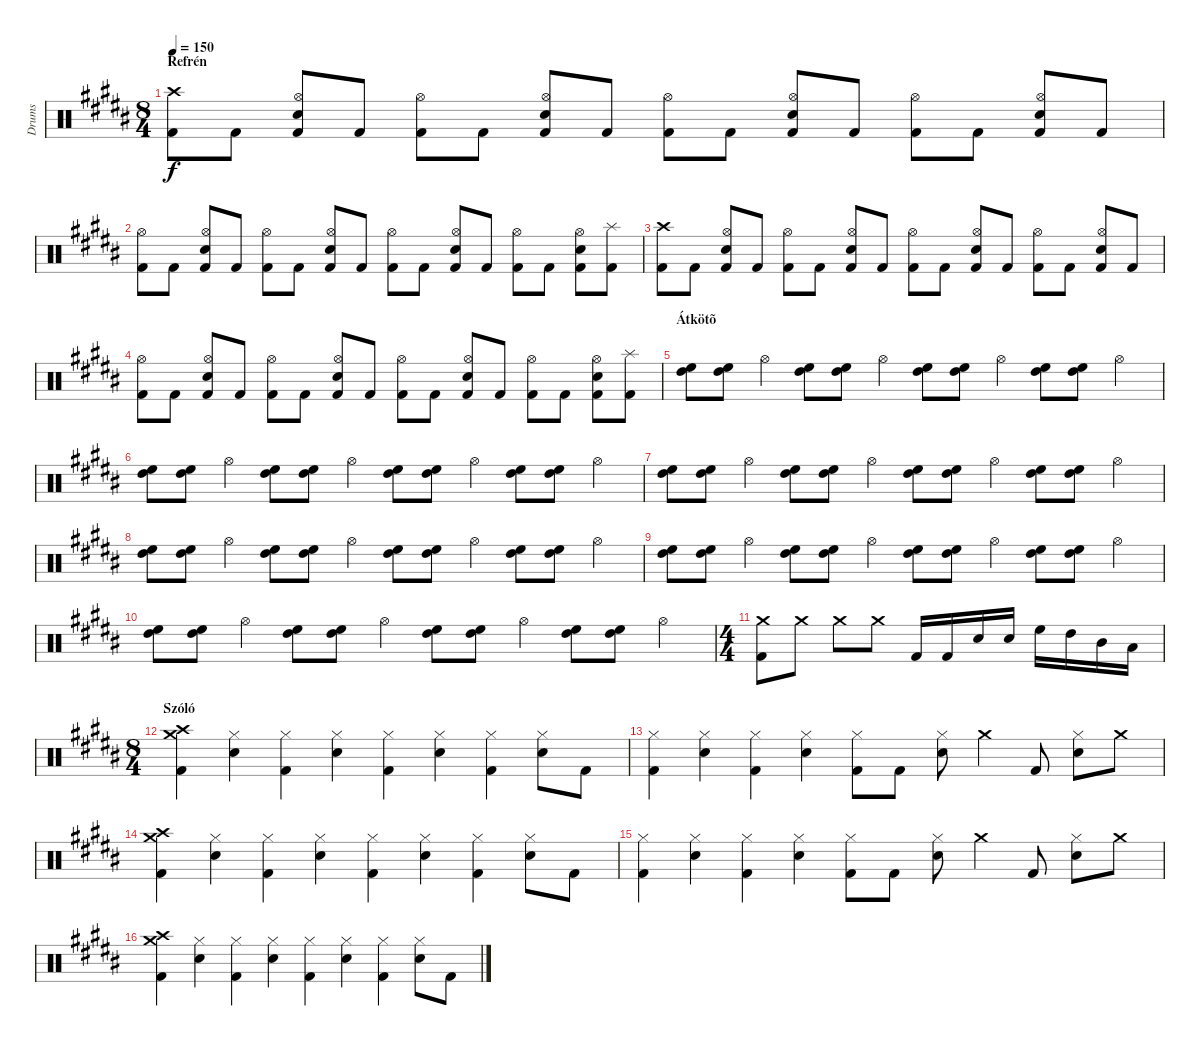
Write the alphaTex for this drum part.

\track ("Drums" "Drums") {instrument percussion}
\staff {score}
\articulation defaults
\ts (8 4)
\section ("" "Refrén")
\tempo 150
\clef neutral
\ks g#minor
("Crash high (hit)" "Kick (hit) 2").8{dy f} "Kick (hit) 2".8 ("Hi-Hat (open)" "Snare (hit) 2" "Kick (hit) 2").8 "Kick (hit) 2".8 ("Hi-Hat (open)" "Kick (hit) 2").8 "Kick (hit) 2".8 ("Hi-Hat (open)" "Snare (hit) 2" "Kick (hit) 2").8 "Kick (hit) 2".8 ("Hi-Hat (open)" "Kick (hit) 2").8 "Kick (hit) 2".8 ("Hi-Hat (open)" "Snare (hit) 2" "Kick (hit) 2").8 "Kick (hit) 2".8 ("Hi-Hat (open)" "Kick (hit) 2").8 "Kick (hit) 2".8 ("Hi-Hat (open)" "Snare (hit) 2" "Kick (hit) 2").8 "Kick (hit) 2".8 |
("Hi-Hat (open)" "Kick (hit) 2").8 "Kick (hit) 2".8 ("Hi-Hat (open)" "Snare (hit) 2" "Kick (hit) 2").8 "Kick (hit) 2".8 ("Hi-Hat (open)" "Kick (hit) 2").8 "Kick (hit) 2".8 ("Hi-Hat (open)" "Snare (hit) 2" "Kick (hit) 2").8 "Kick (hit) 2".8 ("Hi-Hat (open)" "Kick (hit) 2").8 "Kick (hit) 2".8 ("Hi-Hat (open)" "Snare (hit) 2" "Kick (hit) 2").8 "Kick (hit) 2".8 ("Hi-Hat (open)" "Kick (hit) 2").8 "Kick (hit) 2".8 ("Hi-Hat (open)" "Snare (hit) 2" "Kick (hit) 2").8 ("Splash (hit)" "Kick (hit) 2").8 |
("Crash high (hit)" "Kick (hit) 2").8 "Kick (hit) 2".8 ("Hi-Hat (open)" "Snare (hit) 2" "Kick (hit) 2").8 "Kick (hit) 2".8 ("Hi-Hat (open)" "Kick (hit) 2").8 "Kick (hit) 2".8 ("Hi-Hat (open)" "Snare (hit) 2" "Kick (hit) 2").8 "Kick (hit) 2".8 ("Hi-Hat (open)" "Kick (hit) 2").8 "Kick (hit) 2".8 ("Hi-Hat (open)" "Snare (hit) 2" "Kick (hit) 2").8 "Kick (hit) 2".8 ("Hi-Hat (open)" "Kick (hit) 2").8 "Kick (hit) 2".8 ("Hi-Hat (open)" "Snare (hit) 2" "Kick (hit) 2").8 "Kick (hit) 2".8 |
("Hi-Hat (open)" "Kick (hit) 2").8 "Kick (hit) 2".8 ("Hi-Hat (open)" "Snare (hit) 2" "Kick (hit) 2").8 "Kick (hit) 2".8 ("Hi-Hat (open)" "Kick (hit) 2").8 "Kick (hit) 2".8 ("Hi-Hat (open)" "Snare (hit) 2" "Kick (hit) 2").8 "Kick (hit) 2".8 ("Hi-Hat (open)" "Kick (hit) 2").8 "Kick (hit) 2".8 ("Hi-Hat (open)" "Snare (hit) 2" "Kick (hit) 2").8 "Kick (hit) 2".8 ("Hi-Hat (open)" "Kick (hit) 2").8 "Kick (hit) 2".8 ("Hi-Hat (open)" "Snare (hit) 2" "Kick (hit) 2").8 ("Splash (hit)" "Kick (hit) 2").8 |
\section ("" "Átkötõ")
("High Floor Tom (hit)" "High Tom (hit)").8 ("High Floor Tom (hit)" "High Tom (hit)").8 "Hi-Hat (open)".4 ("High Floor Tom (hit)" "High Tom (hit)").8 ("High Floor Tom (hit)" "High Tom (hit)").8 "Hi-Hat (open)".4 ("High Floor Tom (hit)" "High Tom (hit)").8 ("High Floor Tom (hit)" "High Tom (hit)").8 "Hi-Hat (open)".4 ("High Floor Tom (hit)" "High Tom (hit)").8 ("High Floor Tom (hit)" "High Tom (hit)").8 "Hi-Hat (open)".4 |
("High Floor Tom (hit)" "High Tom (hit)").8 ("High Floor Tom (hit)" "High Tom (hit)").8 "Hi-Hat (open)".4 ("High Floor Tom (hit)" "High Tom (hit)").8 ("High Floor Tom (hit)" "High Tom (hit)").8 "Hi-Hat (open)".4 ("High Floor Tom (hit)" "High Tom (hit)").8 ("High Floor Tom (hit)" "High Tom (hit)").8 "Hi-Hat (open)".4 ("High Floor Tom (hit)" "High Tom (hit)").8 ("High Floor Tom (hit)" "High Tom (hit)").8 "Hi-Hat (open)".4 |
("High Floor Tom (hit)" "High Tom (hit)").8 ("High Floor Tom (hit)" "High Tom (hit)").8 "Hi-Hat (open)".4 ("High Floor Tom (hit)" "High Tom (hit)").8 ("High Floor Tom (hit)" "High Tom (hit)").8 "Hi-Hat (open)".4 ("High Floor Tom (hit)" "High Tom (hit)").8 ("High Floor Tom (hit)" "High Tom (hit)").8 "Hi-Hat (open)".4 ("High Floor Tom (hit)" "High Tom (hit)").8 ("High Floor Tom (hit)" "High Tom (hit)").8 "Hi-Hat (open)".4 |
("High Floor Tom (hit)" "High Tom (hit)").8 ("High Floor Tom (hit)" "High Tom (hit)").8 "Hi-Hat (open)".4 ("High Floor Tom (hit)" "High Tom (hit)").8 ("High Floor Tom (hit)" "High Tom (hit)").8 "Hi-Hat (open)".4 ("High Floor Tom (hit)" "High Tom (hit)").8 ("High Floor Tom (hit)" "High Tom (hit)").8 "Hi-Hat (open)".4 ("High Floor Tom (hit)" "High Tom (hit)").8 ("High Floor Tom (hit)" "High Tom (hit)").8 "Hi-Hat (open)".4 |
("High Floor Tom (hit)" "High Tom (hit)").8 ("High Floor Tom (hit)" "High Tom (hit)").8 "Hi-Hat (open)".4 ("High Floor Tom (hit)" "High Tom (hit)").8 ("High Floor Tom (hit)" "High Tom (hit)").8 "Hi-Hat (open)".4 ("High Floor Tom (hit)" "High Tom (hit)").8 ("High Floor Tom (hit)" "High Tom (hit)").8 "Hi-Hat (open)".4 ("High Floor Tom (hit)" "High Tom (hit)").8 ("High Floor Tom (hit)" "High Tom (hit)").8 "Hi-Hat (open)".4 |
("High Floor Tom (hit)" "High Tom (hit)").8 ("High Floor Tom (hit)" "High Tom (hit)").8 "Hi-Hat (open)".4 ("High Floor Tom (hit)" "High Tom (hit)").8 ("High Floor Tom (hit)" "High Tom (hit)").8 "Hi-Hat (open)".4 ("High Floor Tom (hit)" "High Tom (hit)").8 ("High Floor Tom (hit)" "High Tom (hit)").8 "Hi-Hat (open)".4 ("High Floor Tom (hit)" "High Tom (hit)").8 ("High Floor Tom (hit)" "High Tom (hit)").8 "Hi-Hat (open)".4 |
\ts (4 4)
("Crash medium (hit)" "Kick (hit) 2").8 "Crash medium (hit)".8 "Crash medium (hit)".8 "Crash medium (hit)".8 "Kick (hit) 2".16 "Kick (hit) 2".16 "Snare (hit) 2".16 "Snare (hit) 2".16 "High Floor Tom (hit)".16 "High Tom (hit)".16 "Mid Tom (hit)".16 "Low Tom (hit)".16 |
\ts (8 4)
\section ("" "Szóló")
("Crash medium (hit)" "Crash high (hit)" "Kick (hit) 2").4 ("Hi-Hat (closed)" "Snare (hit) 2").4 ("Hi-Hat (closed)" "Kick (hit) 2").4 ("Hi-Hat (closed)" "Snare (hit) 2").4 ("Hi-Hat (closed)" "Kick (hit) 2").4 ("Hi-Hat (closed)" "Snare (hit) 2").4 ("Hi-Hat (closed)" "Kick (hit) 2").4 ("Hi-Hat (closed)" "Snare (hit) 2").8 "Kick (hit) 2".8 |
("Hi-Hat (closed)" "Kick (hit) 2").4 ("Hi-Hat (closed)" "Snare (hit) 2").4 ("Hi-Hat (closed)" "Kick (hit) 2").4 ("Hi-Hat (closed)" "Snare (hit) 2").4 ("Hi-Hat (closed)" "Kick (hit) 2").8 "Kick (hit) 2".8 ("Hi-Hat (closed)" "Snare (hit) 2").8 "Crash medium (hit)".4 "Kick (hit) 2".8 ("Hi-Hat (closed)" "Snare (hit) 2").8 "Crash medium (hit)".8 |
("Crash medium (hit)" "Crash high (hit)" "Kick (hit) 2").4 ("Hi-Hat (closed)" "Snare (hit) 2").4 ("Hi-Hat (closed)" "Kick (hit) 2").4 ("Hi-Hat (closed)" "Snare (hit) 2").4 ("Hi-Hat (closed)" "Kick (hit) 2").4 ("Hi-Hat (closed)" "Snare (hit) 2").4 ("Hi-Hat (closed)" "Kick (hit) 2").4 ("Hi-Hat (closed)" "Snare (hit) 2").8 "Kick (hit) 2".8 |
("Hi-Hat (closed)" "Kick (hit) 2").4 ("Hi-Hat (closed)" "Snare (hit) 2").4 ("Hi-Hat (closed)" "Kick (hit) 2").4 ("Hi-Hat (closed)" "Snare (hit) 2").4 ("Hi-Hat (closed)" "Kick (hit) 2").8 "Kick (hit) 2".8 ("Hi-Hat (closed)" "Snare (hit) 2").8 "Crash medium (hit)".4 "Kick (hit) 2".8 ("Hi-Hat (closed)" "Snare (hit) 2").8 "Crash medium (hit)".8 |
("Crash medium (hit)" "Crash high (hit)" "Kick (hit) 2").4 ("Hi-Hat (closed)" "Snare (hit) 2").4 ("Hi-Hat (closed)" "Kick (hit) 2").4 ("Hi-Hat (closed)" "Snare (hit) 2").4 ("Hi-Hat (closed)" "Kick (hit) 2").4 ("Hi-Hat (closed)" "Snare (hit) 2").4 ("Hi-Hat (closed)" "Kick (hit) 2").4 ("Hi-Hat (closed)" "Snare (hit) 2").8 "Kick (hit) 2".8
